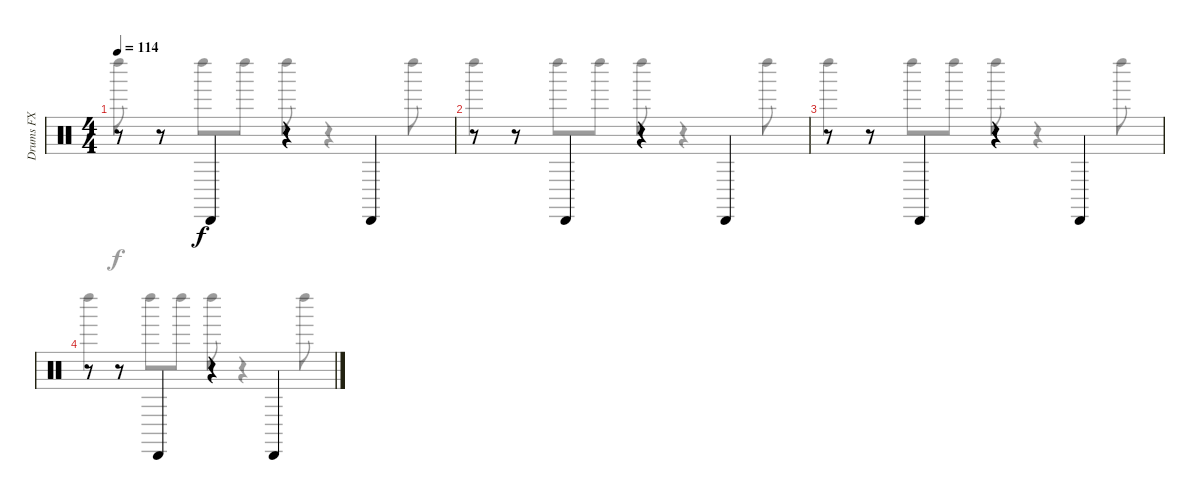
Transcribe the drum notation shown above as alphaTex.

\track ("Drums FX" "Drums FX") {instrument percussion}
\staff {score}
\articulation defaults
\voice
\ts (4 4)
\tempo 114
\clef neutral
\ks c
r.8{dy f} r.8 "Cabasa (hit)".4 r.4 "Cabasa (hit)".4 |
r.8 r.8 "Cabasa (hit)".4 r.4 "Cabasa (hit)".4 |
r.8 r.8 "Cabasa (hit)".4 r.4 "Cabasa (hit)".4 |
r.8 r.8 "Cabasa (hit)".4 r.4 "Cabasa (hit)".4
\voice
\clef neutral
\ottava regular
\simile none
\ks c "Left Maraca (hit)".8{dy f}
r.8 "Left Maraca (hit)".8 "Left Maraca (hit)".8 "Left Maraca (hit)".8 r.4 "Left Maraca (hit)".8 |
"Left Maraca (hit)".4 "Left Maraca (hit)".8 "Left Maraca (hit)".8 "Left Maraca (hit)".8 r.4 "Left Maraca (hit)".8 |
"Left Maraca (hit)".4 "Left Maraca (hit)".8 "Left Maraca (hit)".8 "Left Maraca (hit)".8 r.4 "Left Maraca (hit)".8 |
"Left Maraca (hit)".4 "Left Maraca (hit)".8 "Left Maraca (hit)".8 "Left Maraca (hit)".8 r.4 "Left Maraca (hit)".8
